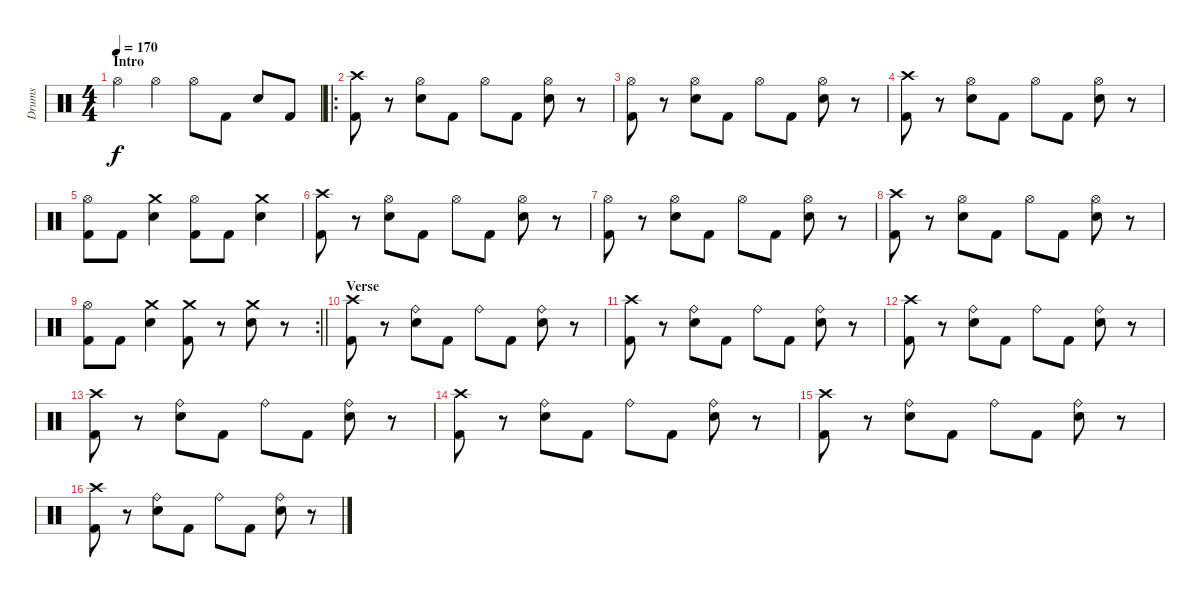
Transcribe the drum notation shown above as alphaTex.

\track ("Drums" "Drums") {instrument percussion}
\staff {score}
\articulation defaults
\ts (4 4)
\section ("" "Intro")
\tempo 170
\clef neutral
\ks c "Hi-Hat (open)".4{dy f} "Hi-Hat (open)".4 "Hi-Hat (open)".8 "Kick (hit) 2".8 "Snare (hit) 2".8 "Kick (hit) 2".8
|
\ro
("Crash high (hit)" "Kick (hit) 2").8 r.8 ("Hi-Hat (open)" "Snare (hit) 2").8 "Kick (hit) 2".8 "Hi-Hat (open)".8 "Kick (hit) 2".8 ("Hi-Hat (open)" "Snare (hit) 2").8 r.8 |
("Hi-Hat (open)" "Kick (hit) 2").8 r.8 ("Hi-Hat (open)" "Snare (hit) 2").8 "Kick (hit) 2".8 "Hi-Hat (open)".8 "Kick (hit) 2".8 ("Hi-Hat (open)" "Snare (hit) 2").8 r.8 |
("Crash high (hit)" "Kick (hit) 2").8 r.8 ("Hi-Hat (open)" "Snare (hit) 2").8 "Kick (hit) 2".8 "Hi-Hat (open)".8 "Kick (hit) 2".8 ("Hi-Hat (open)" "Snare (hit) 2").8 r.8 |
("Hi-Hat (open)" "Kick (hit) 2").8 "Kick (hit) 2".8 ("Crash medium (hit)" "Snare (hit) 2").4 ("Hi-Hat (open)" "Kick (hit) 2").8 "Kick (hit) 2".8 ("Crash medium (hit)" "Snare (hit) 2").4 |
("Crash high (hit)" "Kick (hit) 2").8 r.8 ("Hi-Hat (open)" "Snare (hit) 2").8 "Kick (hit) 2".8 "Hi-Hat (open)".8 "Kick (hit) 2".8 ("Hi-Hat (open)" "Snare (hit) 2").8 r.8 |
("Hi-Hat (open)" "Kick (hit) 2").8 r.8 ("Hi-Hat (open)" "Snare (hit) 2").8 "Kick (hit) 2".8 "Hi-Hat (open)".8 "Kick (hit) 2".8 ("Hi-Hat (open)" "Snare (hit) 2").8 r.8 |
("Crash high (hit)" "Kick (hit) 2").8 r.8 ("Hi-Hat (open)" "Snare (hit) 2").8 "Kick (hit) 2".8 "Hi-Hat (open)".8 "Kick (hit) 2".8 ("Hi-Hat (open)" "Snare (hit) 2").8 r.8 |
\rc 2
\barLineRight lightlight
("Hi-Hat (open)" "Kick (hit) 2").8 "Kick (hit) 2".8 ("Crash medium (hit)" "Snare (hit) 2").4 ("Crash medium (hit)" "Kick (hit) 2").8 r.8 ("Crash medium (hit)" "Snare (hit) 2").8 r.8 |
\section ("" "Verse")
("Crash high (hit)" "Kick (hit) 2").8 r.8 ("Ride (bell)" "Snare (hit) 2").8 "Kick (hit) 2".8 "Ride (bell)".8 "Kick (hit) 2".8 ("Ride (bell)" "Snare (hit) 2").8 r.8 |
("Crash high (hit)" "Kick (hit) 2").8 r.8 ("Ride (bell)" "Snare (hit) 2").8 "Kick (hit) 2".8 "Ride (bell)".8 "Kick (hit) 2".8 ("Ride (bell)" "Snare (hit) 2").8 r.8 |
("Crash high (hit)" "Kick (hit) 2").8 r.8 ("Ride (bell)" "Snare (hit) 2").8 "Kick (hit) 2".8 "Ride (bell)".8 "Kick (hit) 2".8 ("Ride (bell)" "Snare (hit) 2").8 r.8 |
("Crash high (hit)" "Kick (hit) 2").8 r.8 ("Ride (bell)" "Snare (hit) 2").8 "Kick (hit) 2".8 "Ride (bell)".8 "Kick (hit) 2".8 ("Ride (bell)" "Snare (hit) 2").8 r.8 |
("Crash high (hit)" "Kick (hit) 2").8 r.8 ("Ride (bell)" "Snare (hit) 2").8 "Kick (hit) 2".8 "Ride (bell)".8 "Kick (hit) 2".8 ("Ride (bell)" "Snare (hit) 2").8 r.8 |
("Crash high (hit)" "Kick (hit) 2").8 r.8 ("Ride (bell)" "Snare (hit) 2").8 "Kick (hit) 2".8 "Ride (bell)".8 "Kick (hit) 2".8 ("Ride (bell)" "Snare (hit) 2").8 r.8 |
("Crash high (hit)" "Kick (hit) 2").8 r.8 ("Ride (bell)" "Snare (hit) 2").8 "Kick (hit) 2".8 "Ride (bell)".8 "Kick (hit) 2".8 ("Ride (bell)" "Snare (hit) 2").8 r.8
